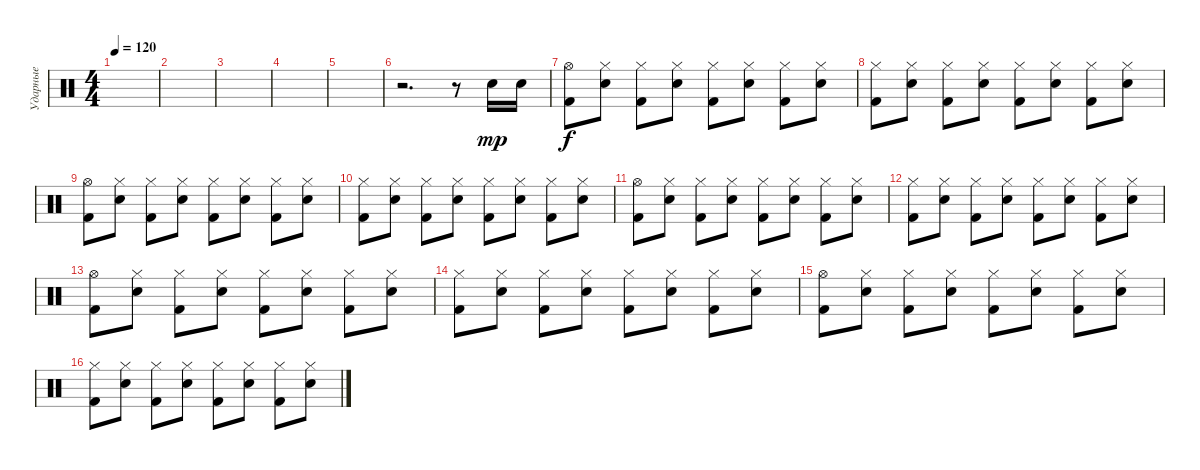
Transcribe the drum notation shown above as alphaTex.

\track ("Ударные" "Ударные") {instrument percussion}
\staff {score}
\articulation defaults
\ts (4 4)
\tempo 120
\clef neutral
\ks c
|
|
|
|
|
r.2{d} r.8 "Electric Snare (hit)".16{dy mp} "Electric Snare (hit)".16 |
("Kick (hit) 2" "Hi-Hat (open)").8{dy f} ("Electric Snare (hit)" "Hi-Hat (closed)").8 ("Kick (hit) 2" "Hi-Hat (closed)").8 ("Electric Snare (hit)" "Hi-Hat (closed)").8 ("Kick (hit) 2" "Hi-Hat (closed)").8 ("Electric Snare (hit)" "Hi-Hat (closed)").8 ("Kick (hit) 2" "Hi-Hat (closed)").8 ("Electric Snare (hit)" "Hi-Hat (closed)").8 |
("Kick (hit) 2" "Hi-Hat (closed)").8 ("Electric Snare (hit)" "Hi-Hat (closed)").8 ("Kick (hit) 2" "Hi-Hat (closed)").8 ("Electric Snare (hit)" "Hi-Hat (closed)").8 ("Kick (hit) 2" "Hi-Hat (closed)").8 ("Electric Snare (hit)" "Hi-Hat (closed)").8 ("Kick (hit) 2" "Hi-Hat (closed)").8 ("Electric Snare (hit)" "Hi-Hat (closed)").8 |
("Kick (hit) 2" "Hi-Hat (open)").8 ("Electric Snare (hit)" "Hi-Hat (closed)").8 ("Kick (hit) 2" "Hi-Hat (closed)").8 ("Electric Snare (hit)" "Hi-Hat (closed)").8 ("Kick (hit) 2" "Hi-Hat (closed)").8 ("Electric Snare (hit)" "Hi-Hat (closed)").8 ("Kick (hit) 2" "Hi-Hat (closed)").8 ("Electric Snare (hit)" "Hi-Hat (closed)").8 |
("Kick (hit) 2" "Hi-Hat (closed)").8 ("Electric Snare (hit)" "Hi-Hat (closed)").8 ("Kick (hit) 2" "Hi-Hat (closed)").8 ("Electric Snare (hit)" "Hi-Hat (closed)").8 ("Kick (hit) 2" "Hi-Hat (closed)").8 ("Electric Snare (hit)" "Hi-Hat (closed)").8 ("Kick (hit) 2" "Hi-Hat (closed)").8 ("Electric Snare (hit)" "Hi-Hat (closed)").8 |
("Kick (hit) 2" "Hi-Hat (open)").8 ("Electric Snare (hit)" "Hi-Hat (closed)").8 ("Kick (hit) 2" "Hi-Hat (closed)").8 ("Electric Snare (hit)" "Hi-Hat (closed)").8 ("Kick (hit) 2" "Hi-Hat (closed)").8 ("Electric Snare (hit)" "Hi-Hat (closed)").8 ("Kick (hit) 2" "Hi-Hat (closed)").8 ("Electric Snare (hit)" "Hi-Hat (closed)").8 |
("Kick (hit) 2" "Hi-Hat (closed)").8 ("Electric Snare (hit)" "Hi-Hat (closed)").8 ("Kick (hit) 2" "Hi-Hat (closed)").8 ("Electric Snare (hit)" "Hi-Hat (closed)").8 ("Kick (hit) 2" "Hi-Hat (closed)").8 ("Electric Snare (hit)" "Hi-Hat (closed)").8 ("Kick (hit) 2" "Hi-Hat (closed)").8 ("Electric Snare (hit)" "Hi-Hat (closed)").8 |
("Kick (hit) 2" "Hi-Hat (open)").8 ("Electric Snare (hit)" "Hi-Hat (closed)").8 ("Kick (hit) 2" "Hi-Hat (closed)").8 ("Electric Snare (hit)" "Hi-Hat (closed)").8 ("Kick (hit) 2" "Hi-Hat (closed)").8 ("Electric Snare (hit)" "Hi-Hat (closed)").8 ("Kick (hit) 2" "Hi-Hat (closed)").8 ("Electric Snare (hit)" "Hi-Hat (closed)").8 |
("Kick (hit) 2" "Hi-Hat (closed)").8 ("Electric Snare (hit)" "Hi-Hat (closed)").8 ("Kick (hit) 2" "Hi-Hat (closed)").8 ("Electric Snare (hit)" "Hi-Hat (closed)").8 ("Kick (hit) 2" "Hi-Hat (closed)").8 ("Electric Snare (hit)" "Hi-Hat (closed)").8 ("Kick (hit) 2" "Hi-Hat (closed)").8 ("Electric Snare (hit)" "Hi-Hat (closed)").8 |
("Kick (hit) 2" "Hi-Hat (open)").8 ("Electric Snare (hit)" "Hi-Hat (closed)").8 ("Kick (hit) 2" "Hi-Hat (closed)").8 ("Electric Snare (hit)" "Hi-Hat (closed)").8 ("Kick (hit) 2" "Hi-Hat (closed)").8 ("Electric Snare (hit)" "Hi-Hat (closed)").8 ("Kick (hit) 2" "Hi-Hat (closed)").8 ("Electric Snare (hit)" "Hi-Hat (closed)").8 |
("Kick (hit) 2" "Hi-Hat (closed)").8 ("Electric Snare (hit)" "Hi-Hat (closed)").8 ("Kick (hit) 2" "Hi-Hat (closed)").8 ("Electric Snare (hit)" "Hi-Hat (closed)").8 ("Kick (hit) 2" "Hi-Hat (closed)").8 ("Electric Snare (hit)" "Hi-Hat (closed)").8 ("Kick (hit) 2" "Hi-Hat (closed)").8 ("Electric Snare (hit)" "Hi-Hat (closed)").8
